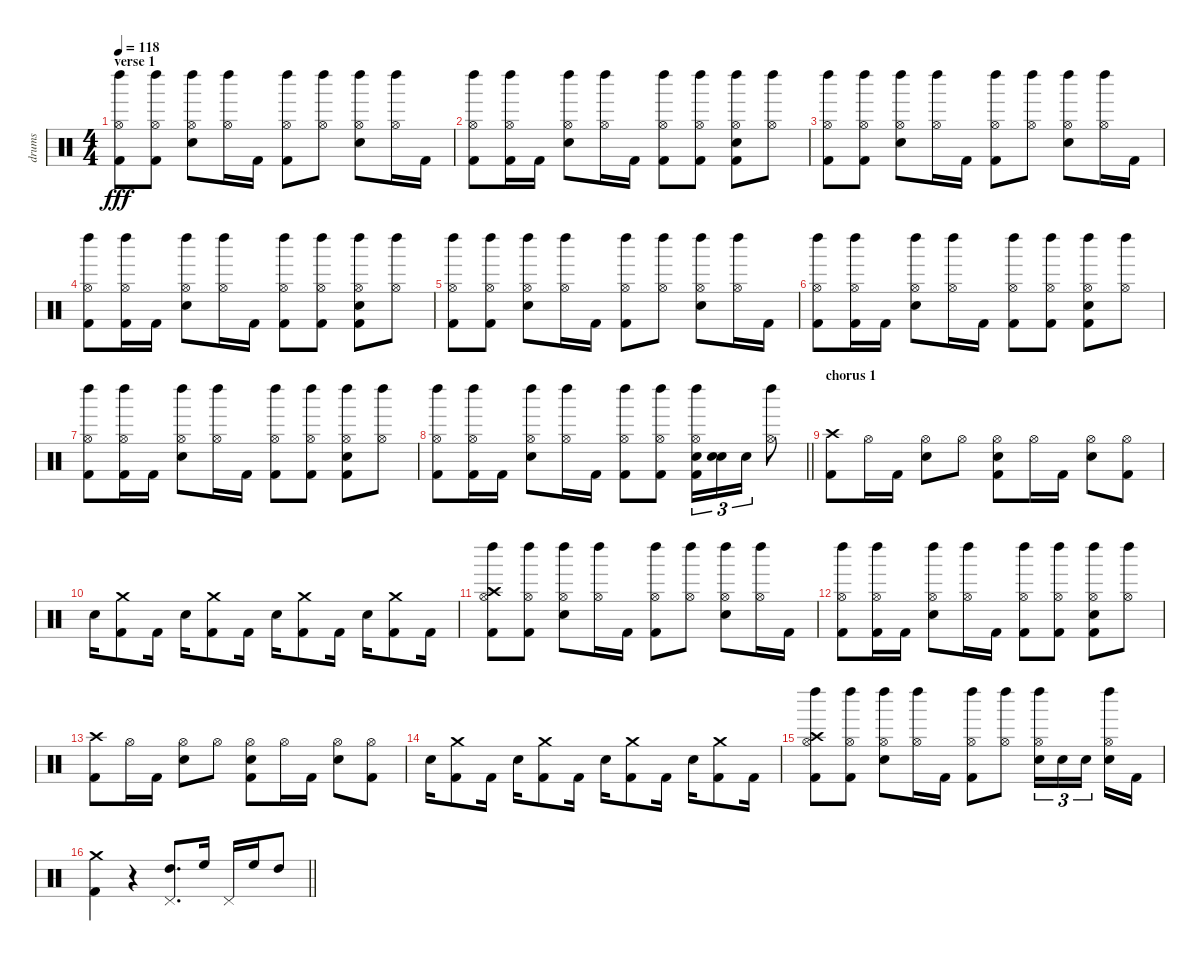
\track ("drums" "drums") {instrument percussion}
\staff {score}
\articulation defaults
\ts (4 4)
\section ("" "verse 1")
\tempo 118
\clef neutral
\ks c
("Hi-Hat (open)" "Left Maraca (hit)" "Kick (hit) 2").8{dy fff} ("Kick (hit) 2" "Left Maraca (hit)" "Hi-Hat (open)").8 ("Hi-Hat (open)" "Left Maraca (hit)" "Electric Snare (hit)").8 ("Hi-Hat (open)" "Left Maraca (hit)").16 "Kick (hit) 2".16 ("Hi-Hat (open)" "Kick (hit) 2" "Left Maraca (hit)").8 ("Hi-Hat (open)" "Left Maraca (hit)").8 ("Hi-Hat (open)" "Left Maraca (hit)" "Electric Snare (hit)").8 ("Left Maraca (hit)" "Hi-Hat (open)").16 "Kick (hit) 2".16 |
("Left Maraca (hit)" "Hi-Hat (open)" "Kick (hit) 2").8 ("Hi-Hat (open)" "Kick (hit) 2" "Left Maraca (hit)").16 "Kick (hit) 2".16 ("Electric Snare (hit)" "Hi-Hat (open)" "Left Maraca (hit)").8 ("Hi-Hat (open)" "Left Maraca (hit)").16 "Kick (hit) 2".16 ("Kick (hit) 2" "Hi-Hat (open)" "Left Maraca (hit)").8 ("Left Maraca (hit)" "Kick (hit) 2" "Hi-Hat (open)").8 ("Kick (hit) 2" "Hi-Hat (open)" "Electric Snare (hit)" "Left Maraca (hit)").8 ("Hi-Hat (open)" "Left Maraca (hit)").8 |
("Hi-Hat (open)" "Left Maraca (hit)" "Kick (hit) 2").8 ("Kick (hit) 2" "Left Maraca (hit)" "Hi-Hat (open)").8 ("Hi-Hat (open)" "Left Maraca (hit)" "Electric Snare (hit)").8 ("Hi-Hat (open)" "Left Maraca (hit)").16 "Kick (hit) 2".16 ("Hi-Hat (open)" "Kick (hit) 2" "Left Maraca (hit)").8 ("Hi-Hat (open)" "Left Maraca (hit)").8 ("Hi-Hat (open)" "Left Maraca (hit)" "Electric Snare (hit)").8 ("Left Maraca (hit)" "Hi-Hat (open)").16 "Kick (hit) 2".16 |
("Left Maraca (hit)" "Hi-Hat (open)" "Kick (hit) 2").8 ("Hi-Hat (open)" "Kick (hit) 2" "Left Maraca (hit)").16 "Kick (hit) 2".16 ("Electric Snare (hit)" "Hi-Hat (open)" "Left Maraca (hit)").8 ("Hi-Hat (open)" "Left Maraca (hit)").16 "Kick (hit) 2".16 ("Kick (hit) 2" "Hi-Hat (open)" "Left Maraca (hit)").8 ("Left Maraca (hit)" "Kick (hit) 2" "Hi-Hat (open)").8 ("Kick (hit) 2" "Hi-Hat (open)" "Electric Snare (hit)" "Left Maraca (hit)").8 ("Hi-Hat (open)" "Left Maraca (hit)").8 |
("Hi-Hat (open)" "Left Maraca (hit)" "Kick (hit) 2").8 ("Kick (hit) 2" "Left Maraca (hit)" "Hi-Hat (open)").8 ("Hi-Hat (open)" "Left Maraca (hit)" "Electric Snare (hit)").8 ("Hi-Hat (open)" "Left Maraca (hit)").16 "Kick (hit) 2".16 ("Hi-Hat (open)" "Kick (hit) 2" "Left Maraca (hit)").8 ("Hi-Hat (open)" "Left Maraca (hit)").8 ("Hi-Hat (open)" "Left Maraca (hit)" "Electric Snare (hit)").8 ("Left Maraca (hit)" "Hi-Hat (open)").16 "Kick (hit) 2".16 |
("Left Maraca (hit)" "Hi-Hat (open)" "Kick (hit) 2").8 ("Hi-Hat (open)" "Kick (hit) 2" "Left Maraca (hit)").16 "Kick (hit) 2".16 ("Electric Snare (hit)" "Hi-Hat (open)" "Left Maraca (hit)").8 ("Hi-Hat (open)" "Left Maraca (hit)").16 "Kick (hit) 2".16 ("Kick (hit) 2" "Hi-Hat (open)" "Left Maraca (hit)").8 ("Left Maraca (hit)" "Kick (hit) 2" "Hi-Hat (open)").8 ("Kick (hit) 2" "Hi-Hat (open)" "Electric Snare (hit)" "Left Maraca (hit)").8 ("Hi-Hat (open)" "Left Maraca (hit)").8 |
("Left Maraca (hit)" "Hi-Hat (open)" "Kick (hit) 2").8 ("Hi-Hat (open)" "Kick (hit) 2" "Left Maraca (hit)").16 "Kick (hit) 2".16 ("Electric Snare (hit)" "Hi-Hat (open)" "Left Maraca (hit)").8 ("Hi-Hat (open)" "Left Maraca (hit)").16 "Kick (hit) 2".16 ("Kick (hit) 2" "Hi-Hat (open)" "Left Maraca (hit)").8 ("Left Maraca (hit)" "Kick (hit) 2" "Hi-Hat (open)").8 ("Kick (hit) 2" "Hi-Hat (open)" "Electric Snare (hit)" "Left Maraca (hit)").8 ("Hi-Hat (open)" "Left Maraca (hit)").8 |
\barLineRight lightlight
("Left Maraca (hit)" "Hi-Hat (open)" "Kick (hit) 2").8 ("Left Maraca (hit)" "Kick (hit) 2" "Hi-Hat (open)").16 "Kick (hit) 2".16 ("Left Maraca (hit)" "Hi-Hat (open)" "Electric Snare (hit)").8 ("Left Maraca (hit)" "Hi-Hat (open)").16 "Kick (hit) 2".16 ("Kick (hit) 2" "Left Maraca (hit)" "Hi-Hat (open)").8 ("Left Maraca (hit)" "Hi-Hat (open)" "Kick (hit) 2").8 ("Left Maraca (hit)" "Hi-Hat (open)" "Electric Snare (hit)" "Kick (hit) 2").16{tu (3 2)} ("Electric Snare (hit)" "Electric Snare (hit)").16{tu (3 2)} "Electric Snare (hit)".16{tu (3 2)} ("Left Maraca (hit)" "Hi-Hat (open)").8 |
\section ("" "chorus 1")
("Crash high (hit)" "Kick (hit) 2").8 "Hi-Hat (open)".16 "Kick (hit) 2".16 ("Hi-Hat (open)" "Electric Snare (hit)").8 "Hi-Hat (open)".8 ("Kick (hit) 2" "Hi-Hat (open)" "Electric Snare (hit)").8 "Hi-Hat (open)".16 "Kick (hit) 2".16 ("Hi-Hat (open)" "Electric Snare (hit)").8 ("Hi-Hat (open)" "Kick (hit) 2").8 |
"Electric Snare (hit)".16 ("Crash medium (hit)" "Kick (hit) 2").8 "Kick (hit) 2".16 "Electric Snare (hit)".16 ("Kick (hit) 2" "Crash medium (hit)").8 "Kick (hit) 2".16 "Electric Snare (hit)".16 ("Kick (hit) 2" "Crash medium (hit)").8 "Kick (hit) 2".16 "Electric Snare (hit)".16 ("Kick (hit) 2" "Crash medium (hit)").8 "Kick (hit) 2".16 |
("Left Maraca (hit)" "Hi-Hat (open)" "Crash high (hit)" "Kick (hit) 2").8 ("Left Maraca (hit)" "Kick (hit) 2" "Hi-Hat (open)").8 ("Electric Snare (hit)" "Left Maraca (hit)" "Hi-Hat (open)").8 ("Hi-Hat (open)" "Left Maraca (hit)").16 "Kick (hit) 2".16 ("Hi-Hat (open)" "Kick (hit) 2" "Left Maraca (hit)").8 ("Left Maraca (hit)" "Hi-Hat (open)").8 ("Hi-Hat (open)" "Left Maraca (hit)" "Electric Snare (hit)").8 ("Left Maraca (hit)" "Hi-Hat (open)").16 "Kick (hit) 2".16 |
("Hi-Hat (open)" "Kick (hit) 2" "Left Maraca (hit)").8 ("Kick (hit) 2" "Hi-Hat (open)" "Left Maraca (hit)").16 "Kick (hit) 2".16 ("Left Maraca (hit)" "Electric Snare (hit)" "Hi-Hat (open)").8 ("Hi-Hat (open)" "Left Maraca (hit)").16 "Kick (hit) 2".16 ("Left Maraca (hit)" "Hi-Hat (open)" "Kick (hit) 2").8 ("Hi-Hat (open)" "Left Maraca (hit)" "Kick (hit) 2").8 ("Electric Snare (hit)" "Kick (hit) 2" "Left Maraca (hit)" "Hi-Hat (open)").8 ("Hi-Hat (open)" "Left Maraca (hit)").8 |
("Kick (hit) 2" "Crash high (hit)").8 "Hi-Hat (open)".16 "Kick (hit) 2".16 ("Hi-Hat (open)" "Electric Snare (hit)").8 "Hi-Hat (open)".8 ("Electric Snare (hit)" "Hi-Hat (open)" "Kick (hit) 2").8 "Hi-Hat (open)".16 "Kick (hit) 2".16 ("Electric Snare (hit)" "Hi-Hat (open)").8 ("Kick (hit) 2" "Hi-Hat (open)").8 |
"Electric Snare (hit)".16 ("Crash medium (hit)" "Kick (hit) 2").8 "Kick (hit) 2".16 "Electric Snare (hit)".16 ("Kick (hit) 2" "Crash medium (hit)").8 "Kick (hit) 2".16 "Electric Snare (hit)".16 ("Kick (hit) 2" "Crash medium (hit)").8 "Kick (hit) 2".16 "Electric Snare (hit)".16 ("Kick (hit) 2" "Crash medium (hit)").8 "Kick (hit) 2".16 |
("Crash high (hit)" "Left Maraca (hit)" "Hi-Hat (open)" "Kick (hit) 2").8 ("Hi-Hat (open)" "Left Maraca (hit)" "Kick (hit) 2").8 ("Electric Snare (hit)" "Left Maraca (hit)" "Hi-Hat (open)").8 ("Hi-Hat (open)" "Left Maraca (hit)").16 "Kick (hit) 2".16 ("Hi-Hat (open)" "Kick (hit) 2" "Left Maraca (hit)").8 ("Left Maraca (hit)" "Hi-Hat (open)").8 ("Electric Snare (hit)" "Left Maraca (hit)" "Hi-Hat (open)").16{tu (3 2)} "Electric Snare (hit)".16{tu (3 2)} "Electric Snare (hit)".16{tu (3 2)} ("Hi-Hat (open)" "Left Maraca (hit)" "Electric Snare (hit)").16 "Kick (hit) 2".16 |
\barLineRight lightlight
("Kick (hit) 2" "Crash medium (hit)").4 r.4 ("Pedal Hi-Hat (hit)" "High Tom (hit)").8{d} "High Floor Tom (hit)".16 "Pedal Hi-Hat (hit)".16 "High Floor Tom (hit)".16 "High Tom (hit)".8
